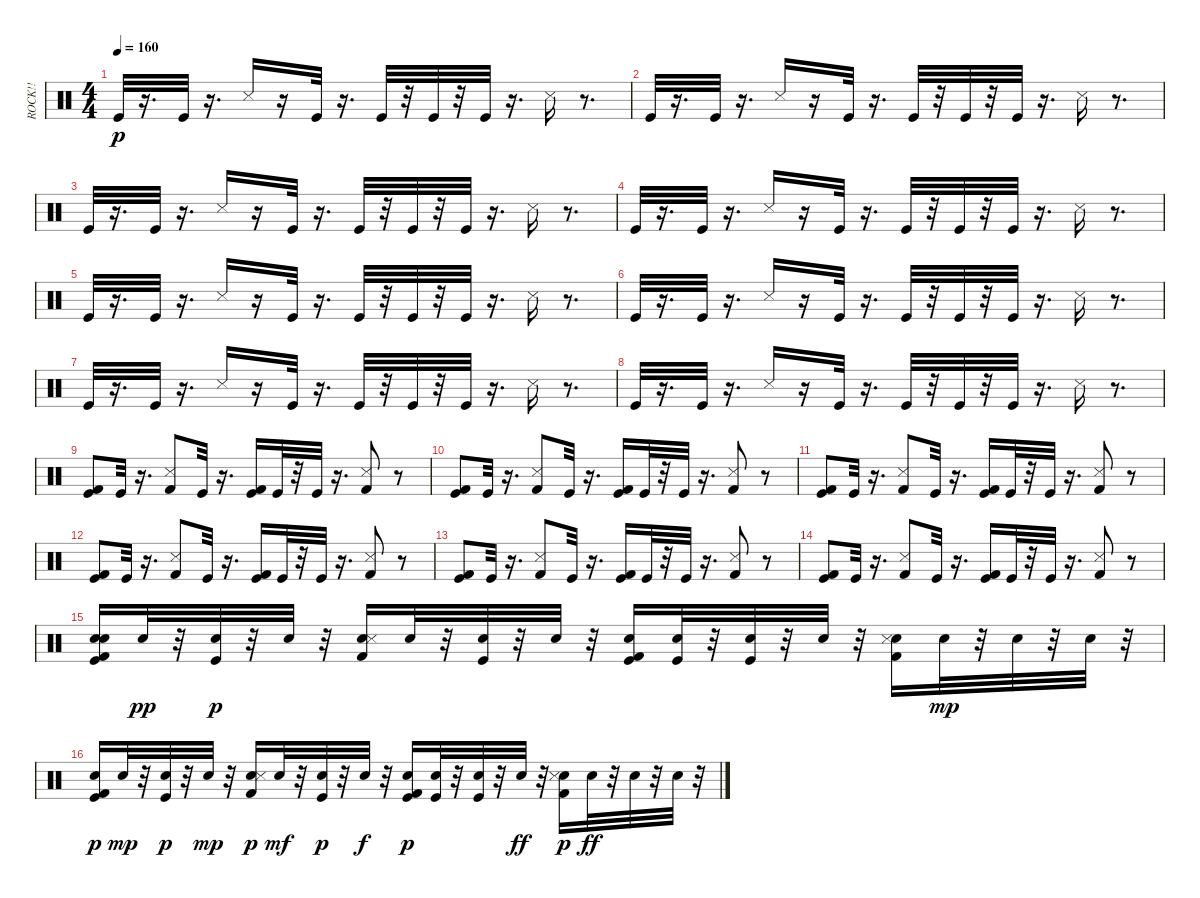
\track ("ROCK!!" "ROCK!!") {instrument percussion}
\staff {score}
\articulation defaults
\ts (4 4)
\tempo 160
\clef neutral
\ks c "Kick (hit)".32{dy p}
r.16{d} "Kick (hit)".32 r.16{d} "Snare (side stick) 3".16 r.16 "Kick (hit)".32 r.16{d} "Kick (hit)".32 r.32 "Kick (hit)".32 r.32 "Kick (hit)".32 r.16{d} "Snare (side stick) 3".16 r.8{d} |
"Kick (hit)".32 r.16{d} "Kick (hit)".32 r.16{d} "Snare (side stick) 3".16 r.16 "Kick (hit)".32 r.16{d} "Kick (hit)".32 r.32 "Kick (hit)".32 r.32 "Kick (hit)".32 r.16{d} "Snare (side stick) 3".16 r.8{d} |
"Kick (hit)".32 r.16{d} "Kick (hit)".32 r.16{d} "Snare (side stick) 3".16 r.16 "Kick (hit)".32 r.16{d} "Kick (hit)".32 r.32 "Kick (hit)".32 r.32 "Kick (hit)".32 r.16{d} "Snare (side stick) 3".16 r.8{d} |
"Kick (hit)".32 r.16{d} "Kick (hit)".32 r.16{d} "Snare (side stick) 3".16 r.16 "Kick (hit)".32 r.16{d} "Kick (hit)".32 r.32 "Kick (hit)".32 r.32 "Kick (hit)".32 r.16{d} "Snare (side stick) 3".16 r.8{d} |
"Kick (hit)".32 r.16{d} "Kick (hit)".32 r.16{d} "Snare (side stick) 3".16 r.16 "Kick (hit)".32 r.16{d} "Kick (hit)".32 r.32 "Kick (hit)".32 r.32 "Kick (hit)".32 r.16{d} "Snare (side stick) 3".16 r.8{d} |
"Kick (hit)".32 r.16{d} "Kick (hit)".32 r.16{d} "Snare (side stick) 3".16 r.16 "Kick (hit)".32 r.16{d} "Kick (hit)".32 r.32 "Kick (hit)".32 r.32 "Kick (hit)".32 r.16{d} "Snare (side stick) 3".16 r.8{d} |
"Kick (hit)".32 r.16{d} "Kick (hit)".32 r.16{d} "Snare (side stick) 3".16 r.16 "Kick (hit)".32 r.16{d} "Kick (hit)".32 r.32 "Kick (hit)".32 r.32 "Kick (hit)".32 r.16{d} "Snare (side stick) 3".16 r.8{d} |
"Kick (hit)".32 r.16{d} "Kick (hit)".32 r.16{d} "Snare (side stick) 3".16 r.16 "Kick (hit)".32 r.16{d} "Kick (hit)".32 r.32 "Kick (hit)".32 r.32 "Kick (hit)".32 r.16{d} "Snare (side stick) 3".16 r.8{d} |
("Kick (hit) 2" "Kick (hit)").8 "Kick (hit)".32 r.16{d} ("Kick (hit) 2" "Snare (side stick) 3").8 "Kick (hit)".32 r.16{d} ("Kick (hit) 2" "Kick (hit)").16 "Kick (hit)".32 r.32 "Kick (hit)".32 r.16{d} ("Kick (hit) 2" "Snare (side stick) 3").8 r.8 |
("Kick (hit) 2" "Kick (hit)").8 "Kick (hit)".32 r.16{d} ("Kick (hit) 2" "Snare (side stick) 3").8 "Kick (hit)".32 r.16{d} ("Kick (hit) 2" "Kick (hit)").16 "Kick (hit)".32 r.32 "Kick (hit)".32 r.16{d} ("Kick (hit) 2" "Snare (side stick) 3").8 r.8 |
("Kick (hit) 2" "Kick (hit)").8 "Kick (hit)".32 r.16{d} ("Kick (hit) 2" "Snare (side stick) 3").8 "Kick (hit)".32 r.16{d} ("Kick (hit) 2" "Kick (hit)").16 "Kick (hit)".32 r.32 "Kick (hit)".32 r.16{d} ("Kick (hit) 2" "Snare (side stick) 3").8 r.8 |
("Kick (hit) 2" "Kick (hit)").8 "Kick (hit)".32 r.16{d} ("Kick (hit) 2" "Snare (side stick) 3").8 "Kick (hit)".32 r.16{d} ("Kick (hit) 2" "Kick (hit)").16 "Kick (hit)".32 r.32 "Kick (hit)".32 r.16{d} ("Kick (hit) 2" "Snare (side stick) 3").8 r.8 |
("Kick (hit) 2" "Kick (hit)").8 "Kick (hit)".32 r.16{d} ("Kick (hit) 2" "Snare (side stick) 3").8 "Kick (hit)".32 r.16{d} ("Kick (hit) 2" "Kick (hit)").16 "Kick (hit)".32 r.32 "Kick (hit)".32 r.16{d} ("Kick (hit) 2" "Snare (side stick) 3").8 r.8 |
("Kick (hit) 2" "Kick (hit)").8 "Kick (hit)".32 r.16{d} ("Kick (hit) 2" "Snare (side stick) 3").8 "Kick (hit)".32 r.16{d} ("Kick (hit) 2" "Kick (hit)").16 "Kick (hit)".32 r.32 "Kick (hit)".32 r.16{d} ("Kick (hit) 2" "Snare (side stick) 3").8 r.8 |
("Kick (hit) 2" "Electric Snare (hit)" "Electric Snare (hit)" "Kick (hit)").16 "Electric Snare (hit)".32{dy pp} r.32 ("Electric Snare (hit)" "Kick (hit)").32{dy p} r.32 "Electric Snare (hit)".32 r.32 ("Kick (hit) 2" "Electric Snare (hit)" "Snare (side stick) 3").16 "Electric Snare (hit)".32 r.32 ("Electric Snare (hit)" "Kick (hit)").32 r.32 "Electric Snare (hit)".32 r.32 ("Kick (hit) 2" "Electric Snare (hit)" "Kick (hit)").16 ("Electric Snare (hit)" "Kick (hit)").32 r.32 ("Electric Snare (hit)" "Kick (hit)").32 r.32 "Electric Snare (hit)".32 r.32 ("Kick (hit) 2" "Electric Snare (hit)" "Snare (side stick) 3").16 "Electric Snare (hit)".32{dy mp} r.32 "Electric Snare (hit)".32 r.32 "Electric Snare (hit)".32 r.32 |
("Kick (hit) 2" "Electric Snare (hit)" "Kick (hit)").16{dy p} "Electric Snare (hit)".32{dy mp} r.32 ("Electric Snare (hit)" "Kick (hit)").32{dy p} r.32 "Electric Snare (hit)".32{dy mp} r.32 ("Kick (hit) 2" "Electric Snare (hit)" "Snare (side stick) 3").16{dy p} "Electric Snare (hit)".32{dy mf} r.32 ("Electric Snare (hit)" "Kick (hit)").32{dy p} r.32 "Electric Snare (hit)".32{dy f} r.32 ("Kick (hit) 2" "Electric Snare (hit)" "Kick (hit)").16{dy p} ("Electric Snare (hit)" "Kick (hit)").32 r.32 ("Electric Snare (hit)" "Kick (hit)").32 r.32 "Electric Snare (hit)".32{dy ff} r.32 ("Kick (hit) 2" "Electric Snare (hit)" "Snare (side stick) 3").16{dy p} "Electric Snare (hit)".32{dy ff} r.32 "Electric Snare (hit)".32 r.32 "Electric Snare (hit)".32 r.32
